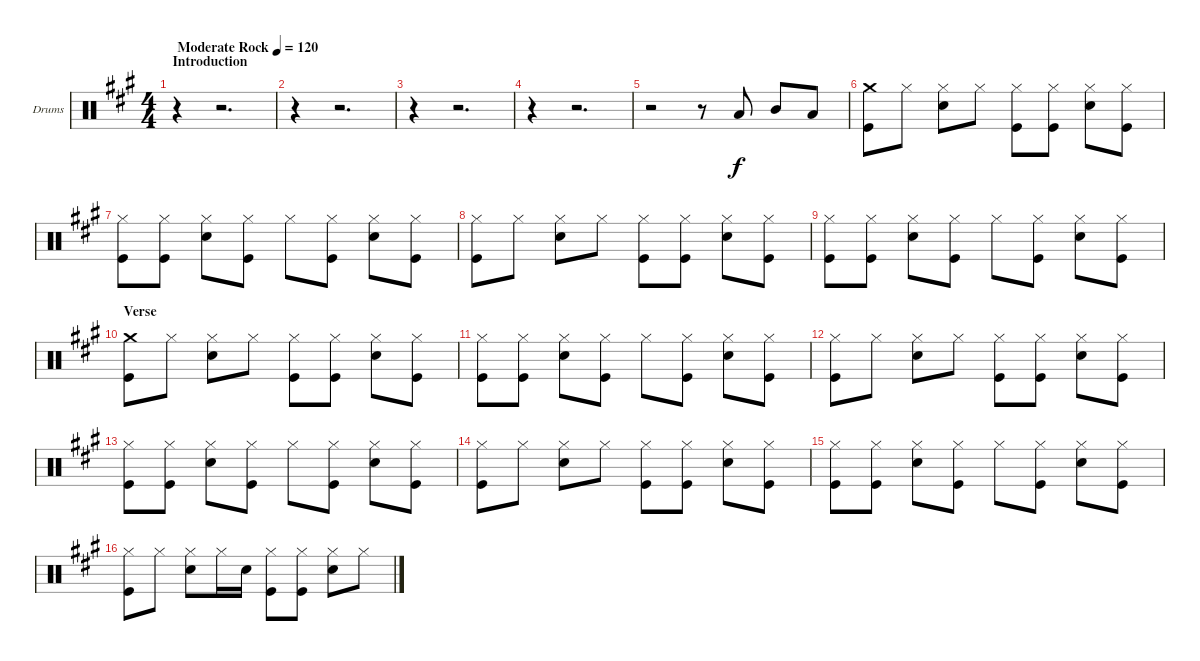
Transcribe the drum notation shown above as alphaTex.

\defaultSystemsLayout 4
\bracketExtendMode groupsimilarinstruments
\firstSystemTrackNameOrientation horizontal
\otherSystemsTrackNameOrientation horizontal
\track ("Drum" "Drums") {instrument percussion}
\staff {score}
\articulation defaults
\ts (4 4)
\section ("" "Introduction")
\tempo (120 "Moderate Rock")
\clef neutral
\scale
1.08827
\ks a
r.4{dy f} r.2{d} |
\scale
0.911728 r.4 r.2{d} |
\scale
1.05801 r.4 r.2{d} |
\scale
0.941992 r.4 r.2{d} |
\scale
1.05801 r.2 r.8 "Low Tom (hit)".8 "Mid Tom (hit)".8 "Low Tom (hit)".8 |
\scale
0.941992 ("Crash medium (hit)" "Kick (hit)").8 "Hi-Hat (closed)".8 ("Hi-Hat (closed)" "Snare (hit) 2").8 "Hi-Hat (closed)".8 ("Hi-Hat (closed)" "Kick (hit)").8 ("Hi-Hat (closed)" "Kick (hit)").8 ("Hi-Hat (closed)" "Snare (hit) 2").8 ("Hi-Hat (closed)" "Kick (hit)").8 |
\scale
1.05801 ("Hi-Hat (closed)" "Kick (hit)").8 ("Hi-Hat (closed)" "Kick (hit)").8 ("Hi-Hat (closed)" "Snare (hit) 2").8 ("Hi-Hat (closed)" "Kick (hit)").8 "Hi-Hat (closed)".8 ("Hi-Hat (closed)" "Kick (hit)").8 ("Hi-Hat (closed)" "Snare (hit) 2").8 ("Hi-Hat (closed)" "Kick (hit)").8 |
\scale
0.941992 ("Hi-Hat (closed)" "Kick (hit)").8 "Hi-Hat (closed)".8 ("Hi-Hat (closed)" "Snare (hit) 2").8 "Hi-Hat (closed)".8 ("Hi-Hat (closed)" "Kick (hit)").8 ("Hi-Hat (closed)" "Kick (hit)").8 ("Hi-Hat (closed)" "Snare (hit) 2").8 ("Hi-Hat (closed)" "Kick (hit)").8 |
\scale
1.05801 ("Hi-Hat (closed)" "Kick (hit)").8 ("Hi-Hat (closed)" "Kick (hit)").8 ("Hi-Hat (closed)" "Snare (hit) 2").8 ("Hi-Hat (closed)" "Kick (hit)").8 "Hi-Hat (closed)".8 ("Hi-Hat (closed)" "Kick (hit)").8 ("Hi-Hat (closed)" "Snare (hit) 2").8 ("Hi-Hat (closed)" "Kick (hit)").8 |
\section ("" "Verse")
\scale
0.941992 ("Crash medium (hit)" "Kick (hit)").8 "Hi-Hat (closed)".8 ("Hi-Hat (closed)" "Snare (hit) 2").8 "Hi-Hat (closed)".8 ("Hi-Hat (closed)" "Kick (hit)").8 ("Hi-Hat (closed)" "Kick (hit)").8 ("Hi-Hat (closed)" "Snare (hit) 2").8 ("Hi-Hat (closed)" "Kick (hit)").8 |
\scale
1.05801 ("Hi-Hat (closed)" "Kick (hit)").8 ("Hi-Hat (closed)" "Kick (hit)").8 ("Hi-Hat (closed)" "Snare (hit) 2").8 ("Hi-Hat (closed)" "Kick (hit)").8 "Hi-Hat (closed)".8 ("Hi-Hat (closed)" "Kick (hit)").8 ("Hi-Hat (closed)" "Snare (hit) 2").8 ("Hi-Hat (closed)" "Kick (hit)").8 |
\scale
0.941992 ("Hi-Hat (closed)" "Kick (hit)").8 "Hi-Hat (closed)".8 ("Hi-Hat (closed)" "Snare (hit) 2").8 "Hi-Hat (closed)".8 ("Hi-Hat (closed)" "Kick (hit)").8 ("Hi-Hat (closed)" "Kick (hit)").8 ("Hi-Hat (closed)" "Snare (hit) 2").8 ("Hi-Hat (closed)" "Kick (hit)").8 |
\scale
1.05801 ("Hi-Hat (closed)" "Kick (hit)").8 ("Hi-Hat (closed)" "Kick (hit)").8 ("Hi-Hat (closed)" "Snare (hit) 2").8 ("Hi-Hat (closed)" "Kick (hit)").8 "Hi-Hat (closed)".8 ("Hi-Hat (closed)" "Kick (hit)").8 ("Hi-Hat (closed)" "Snare (hit) 2").8 ("Hi-Hat (closed)" "Kick (hit)").8 |
\scale
0.941992 ("Hi-Hat (closed)" "Kick (hit)").8 "Hi-Hat (closed)".8 ("Hi-Hat (closed)" "Snare (hit) 2").8 "Hi-Hat (closed)".8 ("Hi-Hat (closed)" "Kick (hit)").8 ("Hi-Hat (closed)" "Kick (hit)").8 ("Hi-Hat (closed)" "Snare (hit) 2").8 ("Hi-Hat (closed)" "Kick (hit)").8 |
\scale
1.05801 ("Hi-Hat (closed)" "Kick (hit)").8 ("Hi-Hat (closed)" "Kick (hit)").8 ("Hi-Hat (closed)" "Snare (hit) 2").8 ("Hi-Hat (closed)" "Kick (hit)").8 "Hi-Hat (closed)".8 ("Hi-Hat (closed)" "Kick (hit)").8 ("Hi-Hat (closed)" "Snare (hit) 2").8 ("Hi-Hat (closed)" "Kick (hit)").8 |
\scale
0.941992 ("Hi-Hat (closed)" "Kick (hit)").8 "Hi-Hat (closed)".8 ("Hi-Hat (closed)" "Snare (hit) 2").8 "Hi-Hat (closed)".16 "Snare (hit) 2".16 ("Hi-Hat (closed)" "Kick (hit)").8 ("Hi-Hat (closed)" "Kick (hit)").8 ("Hi-Hat (closed)" "Snare (hit) 2").8 "Hi-Hat (closed)".8
